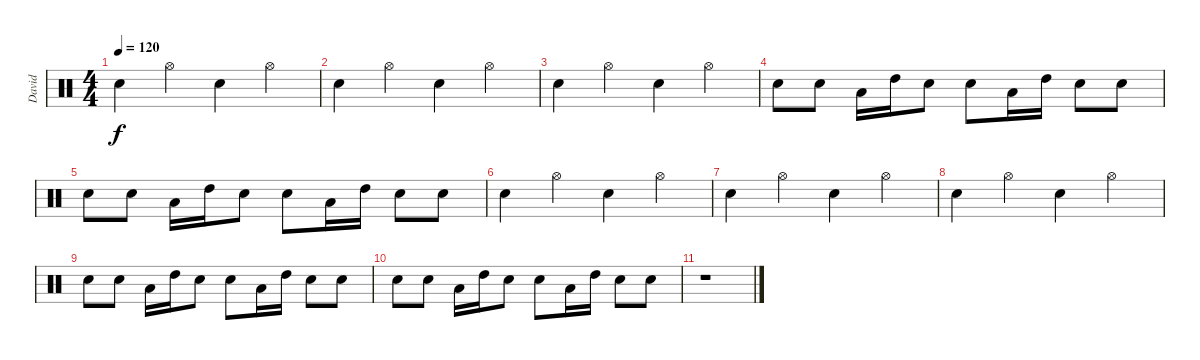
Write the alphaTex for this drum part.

\track ("David " "David ") {instrument percussion}
\staff {score}
\articulation defaults
\ts (4 4)
\tempo 120
\clef neutral
\ks c "Snare (hit) 2".4{dy f} "Hi-Hat (open)".4 "Snare (hit) 2".4 "Hi-Hat (open)".4
|
"Electric Snare (hit)".4 "Hi-Hat (open)".4 "Electric Snare (hit)".4 "Hi-Hat (open)".4 |
"Snare (hit) 2".4 "Hi-Hat (open)".4 "Snare (hit) 2".4 "Hi-Hat (open)".4 |
"Electric Snare (hit)".8 "Electric Snare (hit)".8 "Low Tom (hit)".16 "High Tom (hit)".16 "Electric Snare (hit)".8 "Electric Snare (hit)".8 "Low Tom (hit)".16 "High Tom (hit)".16 "Electric Snare (hit)".8 "Electric Snare (hit)".8 |
"Snare (hit) 2".8 "Snare (hit) 2".8 "Low Tom (hit)".16 "High Tom (hit)".16 "Snare (hit) 2".8 "Snare (hit) 2".8 "Low Tom (hit)".16 "High Tom (hit)".16 "Snare (hit) 2".8 "Snare (hit) 2".8 |
"Snare (hit) 2".4 "Hi-Hat (open)".4 "Snare (hit) 2".4 "Hi-Hat (open)".4 |
"Electric Snare (hit)".4 "Hi-Hat (open)".4 "Electric Snare (hit)".4 "Hi-Hat (open)".4 |
"Snare (hit) 2".4 "Hi-Hat (open)".4 "Snare (hit) 2".4 "Hi-Hat (open)".4 |
"Electric Snare (hit)".8 "Electric Snare (hit)".8 "Low Tom (hit)".16 "High Tom (hit)".16 "Electric Snare (hit)".8 "Electric Snare (hit)".8 "Low Tom (hit)".16 "High Tom (hit)".16 "Electric Snare (hit)".8 "Electric Snare (hit)".8 |
"Snare (hit) 2".8 "Snare (hit) 2".8 "Low Tom (hit)".16 "High Tom (hit)".16 "Snare (hit) 2".8 "Snare (hit) 2".8 "Low Tom (hit)".16 "High Tom (hit)".16 "Snare (hit) 2".8 "Snare (hit) 2".8 |
r.1
